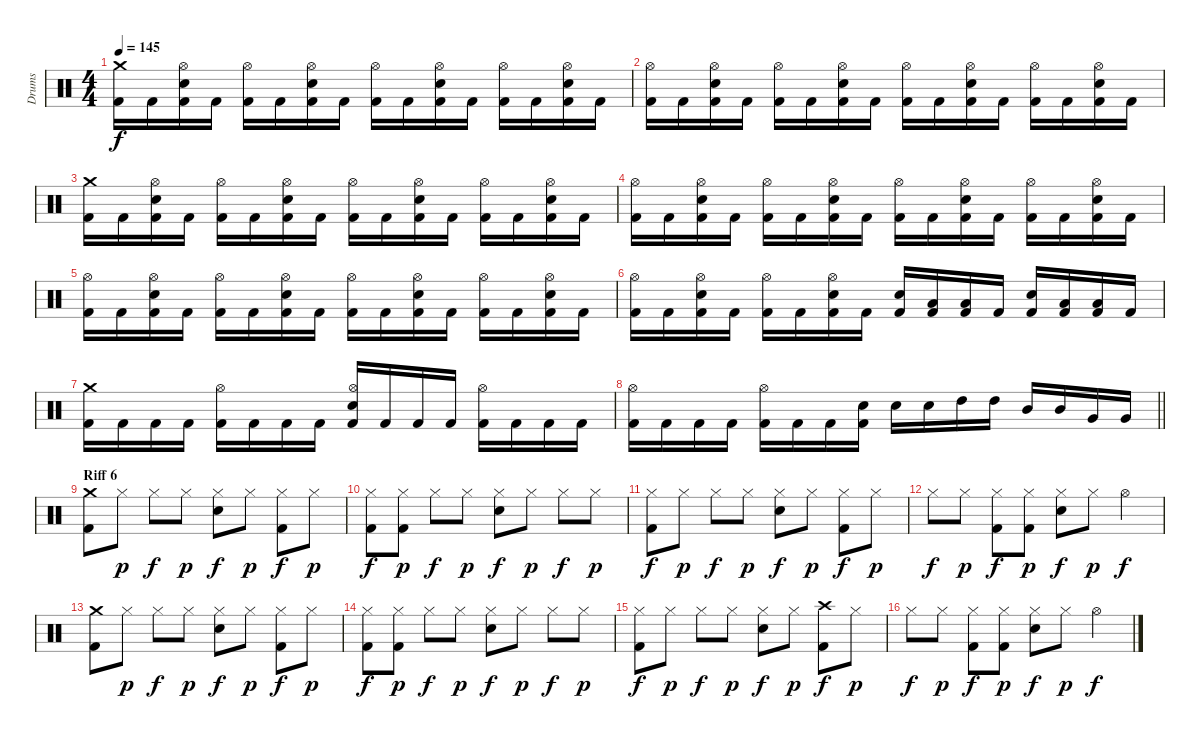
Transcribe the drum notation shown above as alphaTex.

\track ("Drums" "Drums") {instrument percussion}
\staff {score}
\articulation defaults
\ts (4 4)
\tempo 145
\clef neutral
\ks c
("Crash medium (hit)" "Kick (hit) 2").16{dy f} "Kick (hit) 2".16 ("Hi-Hat (open)" "Electric Snare (hit)" "Kick (hit) 2").16 "Kick (hit) 2".16 ("Hi-Hat (open)" "Kick (hit) 2").16 "Kick (hit) 2".16 ("Hi-Hat (open)" "Electric Snare (hit)" "Kick (hit) 2").16 "Kick (hit) 2".16 ("Hi-Hat (open)" "Kick (hit) 2").16 "Kick (hit) 2".16 ("Hi-Hat (open)" "Electric Snare (hit)" "Kick (hit) 2").16 "Kick (hit) 2".16 ("Hi-Hat (open)" "Kick (hit) 2").16 "Kick (hit) 2".16 ("Hi-Hat (open)" "Electric Snare (hit)" "Kick (hit) 2").16 "Kick (hit) 2".16 |
("Hi-Hat (open)" "Kick (hit) 2").16 "Kick (hit) 2".16 ("Hi-Hat (open)" "Electric Snare (hit)" "Kick (hit) 2").16 "Kick (hit) 2".16 ("Hi-Hat (open)" "Kick (hit) 2").16 "Kick (hit) 2".16 ("Hi-Hat (open)" "Electric Snare (hit)" "Kick (hit) 2").16 "Kick (hit) 2".16 ("Hi-Hat (open)" "Kick (hit) 2").16 "Kick (hit) 2".16 ("Hi-Hat (open)" "Electric Snare (hit)" "Kick (hit) 2").16 "Kick (hit) 2".16 ("Hi-Hat (open)" "Kick (hit) 2").16 "Kick (hit) 2".16 ("Hi-Hat (open)" "Electric Snare (hit)" "Kick (hit) 2").16 "Kick (hit) 2".16 |
("Crash medium (hit)" "Kick (hit) 2").16 "Kick (hit) 2".16 ("Hi-Hat (open)" "Electric Snare (hit)" "Kick (hit) 2").16 "Kick (hit) 2".16 ("Hi-Hat (open)" "Kick (hit) 2").16 "Kick (hit) 2".16 ("Hi-Hat (open)" "Electric Snare (hit)" "Kick (hit) 2").16 "Kick (hit) 2".16 ("Hi-Hat (open)" "Kick (hit) 2").16 "Kick (hit) 2".16 ("Hi-Hat (open)" "Electric Snare (hit)" "Kick (hit) 2").16 "Kick (hit) 2".16 ("Hi-Hat (open)" "Kick (hit) 2").16 "Kick (hit) 2".16 ("Hi-Hat (open)" "Electric Snare (hit)" "Kick (hit) 2").16 "Kick (hit) 2".16 |
("Hi-Hat (open)" "Kick (hit) 2").16 "Kick (hit) 2".16 ("Hi-Hat (open)" "Electric Snare (hit)" "Kick (hit) 2").16 "Kick (hit) 2".16 ("Hi-Hat (open)" "Kick (hit) 2").16 "Kick (hit) 2".16 ("Hi-Hat (open)" "Electric Snare (hit)" "Kick (hit) 2").16 "Kick (hit) 2".16 ("Hi-Hat (open)" "Kick (hit) 2").16 "Kick (hit) 2".16 ("Hi-Hat (open)" "Electric Snare (hit)" "Kick (hit) 2").16 "Kick (hit) 2".16 ("Hi-Hat (open)" "Kick (hit) 2").16 "Kick (hit) 2".16 ("Hi-Hat (open)" "Electric Snare (hit)" "Kick (hit) 2").16 "Kick (hit) 2".16 |
("Hi-Hat (open)" "Kick (hit) 2").16 "Kick (hit) 2".16 ("Hi-Hat (open)" "Electric Snare (hit)" "Kick (hit) 2").16 "Kick (hit) 2".16 ("Hi-Hat (open)" "Kick (hit) 2").16 "Kick (hit) 2".16 ("Hi-Hat (open)" "Electric Snare (hit)" "Kick (hit) 2").16 "Kick (hit) 2".16 ("Hi-Hat (open)" "Kick (hit) 2").16 "Kick (hit) 2".16 ("Hi-Hat (open)" "Electric Snare (hit)" "Kick (hit) 2").16 "Kick (hit) 2".16 ("Hi-Hat (open)" "Kick (hit) 2").16 "Kick (hit) 2".16 ("Hi-Hat (open)" "Electric Snare (hit)" "Kick (hit) 2").16 "Kick (hit) 2".16 |
("Hi-Hat (open)" "Kick (hit) 2").16 "Kick (hit) 2".16 ("Hi-Hat (open)" "Electric Snare (hit)" "Kick (hit) 2").16 "Kick (hit) 2".16 ("Hi-Hat (open)" "Kick (hit) 2").16 "Kick (hit) 2".16 ("Hi-Hat (open)" "Electric Snare (hit)" "Kick (hit) 2").16 "Kick (hit) 2".16 ("Electric Snare (hit)" "Kick (hit) 2").16 ("Low Tom (hit)" "Kick (hit) 2").16 ("Low Tom (hit)" "Kick (hit) 2").16 "Kick (hit) 2".16 ("Electric Snare (hit)" "Kick (hit) 2").16 ("Low Tom (hit)" "Kick (hit) 2").16 ("Low Tom (hit)" "Kick (hit) 2").16 "Kick (hit) 2".16 |
("Crash medium (hit)" "Kick (hit) 2").16 "Kick (hit) 2".16 "Kick (hit) 2".16 "Kick (hit) 2".16 ("Hi-Hat (open)" "Kick (hit) 2").16 "Kick (hit) 2".16 "Kick (hit) 2".16 "Kick (hit) 2".16 ("Hi-Hat (open)" "Electric Snare (hit)" "Kick (hit) 2").16 "Kick (hit) 2".16 "Kick (hit) 2".16 "Kick (hit) 2".16 ("Hi-Hat (open)" "Kick (hit) 2").16 "Kick (hit) 2".16 "Kick (hit) 2".16 "Kick (hit) 2".16 |
\barLineRight lightlight
("Hi-Hat (open)" "Kick (hit) 2").16 "Kick (hit) 2".16 "Kick (hit) 2".16 "Kick (hit) 2".16 ("Hi-Hat (open)" "Kick (hit) 2").16 "Kick (hit) 2".16 "Kick (hit) 2".16 ("Electric Snare (hit)" "Kick (hit) 2").16 "Electric Snare (hit)".16 "Electric Snare (hit)".16 "High Tom (hit)".16 "High Tom (hit)".16 "Mid Tom (hit)".16 "Mid Tom (hit)".16 "Very Low Tom (hit)".16 "Very Low Tom (hit)".16 |
\section ("" "Riff 6")
("Crash medium (hit)" "Kick (hit) 2").8 "Hi-Hat (closed)".8{dy p} "Hi-Hat (closed)".8{dy f} "Hi-Hat (closed)".8{dy p} ("Hi-Hat (closed)" "Electric Snare (hit)").8{dy f} "Hi-Hat (closed)".8{dy p} ("Hi-Hat (closed)" "Kick (hit) 2").8{dy f} "Hi-Hat (closed)".8{dy p} |
("Hi-Hat (closed)" "Kick (hit) 2").8{dy f} ("Hi-Hat (closed)" "Kick (hit) 2").8{dy p} "Hi-Hat (closed)".8{dy f} "Hi-Hat (closed)".8{dy p} ("Hi-Hat (closed)" "Electric Snare (hit)").8{dy f} "Hi-Hat (closed)".8{dy p} "Hi-Hat (closed)".8{dy f} "Hi-Hat (closed)".8{dy p} |
("Hi-Hat (closed)" "Kick (hit) 2").8{dy f} "Hi-Hat (closed)".8{dy p} "Hi-Hat (closed)".8{dy f} "Hi-Hat (closed)".8{dy p} ("Hi-Hat (closed)" "Electric Snare (hit)").8{dy f} "Hi-Hat (closed)".8{dy p} ("Hi-Hat (closed)" "Kick (hit) 2").8{dy f} "Hi-Hat (closed)".8{dy p} |
"Hi-Hat (closed)".8{dy f} "Hi-Hat (closed)".8{dy p} ("Hi-Hat (closed)" "Kick (hit) 2").8{dy f} ("Hi-Hat (closed)" "Kick (hit) 2").8{dy p} ("Hi-Hat (closed)" "Electric Snare (hit)").8{dy f} "Hi-Hat (closed)".8{dy p} "Hi-Hat (open)".4{dy f} |
("Crash medium (hit)" "Kick (hit) 2").8 "Hi-Hat (closed)".8{dy p} "Hi-Hat (closed)".8{dy f} "Hi-Hat (closed)".8{dy p} ("Hi-Hat (closed)" "Electric Snare (hit)").8{dy f} "Hi-Hat (closed)".8{dy p} ("Hi-Hat (closed)" "Kick (hit) 2").8{dy f} "Hi-Hat (closed)".8{dy p} |
("Hi-Hat (closed)" "Kick (hit) 2").8{dy f} ("Hi-Hat (closed)" "Kick (hit) 2").8{dy p} "Hi-Hat (closed)".8{dy f} "Hi-Hat (closed)".8{dy p} ("Hi-Hat (closed)" "Electric Snare (hit)").8{dy f} "Hi-Hat (closed)".8{dy p} "Hi-Hat (closed)".8{dy f} "Hi-Hat (closed)".8{dy p} |
("Hi-Hat (closed)" "Kick (hit) 2").8{dy f} "Hi-Hat (closed)".8{dy p} "Hi-Hat (closed)".8{dy f} "Hi-Hat (closed)".8{dy p} ("Hi-Hat (closed)" "Electric Snare (hit)").8{dy f} "Hi-Hat (closed)".8{dy p} ("Crash high (hit)" "Kick (hit) 2").8{dy f} "Hi-Hat (closed)".8{dy p} |
"Hi-Hat (closed)".8{dy f} "Hi-Hat (closed)".8{dy p} ("Hi-Hat (closed)" "Kick (hit) 2").8{dy f} ("Hi-Hat (closed)" "Kick (hit) 2").8{dy p} ("Hi-Hat (closed)" "Electric Snare (hit)").8{dy f} "Hi-Hat (closed)".8{dy p} "Hi-Hat (open)".4{dy f}
